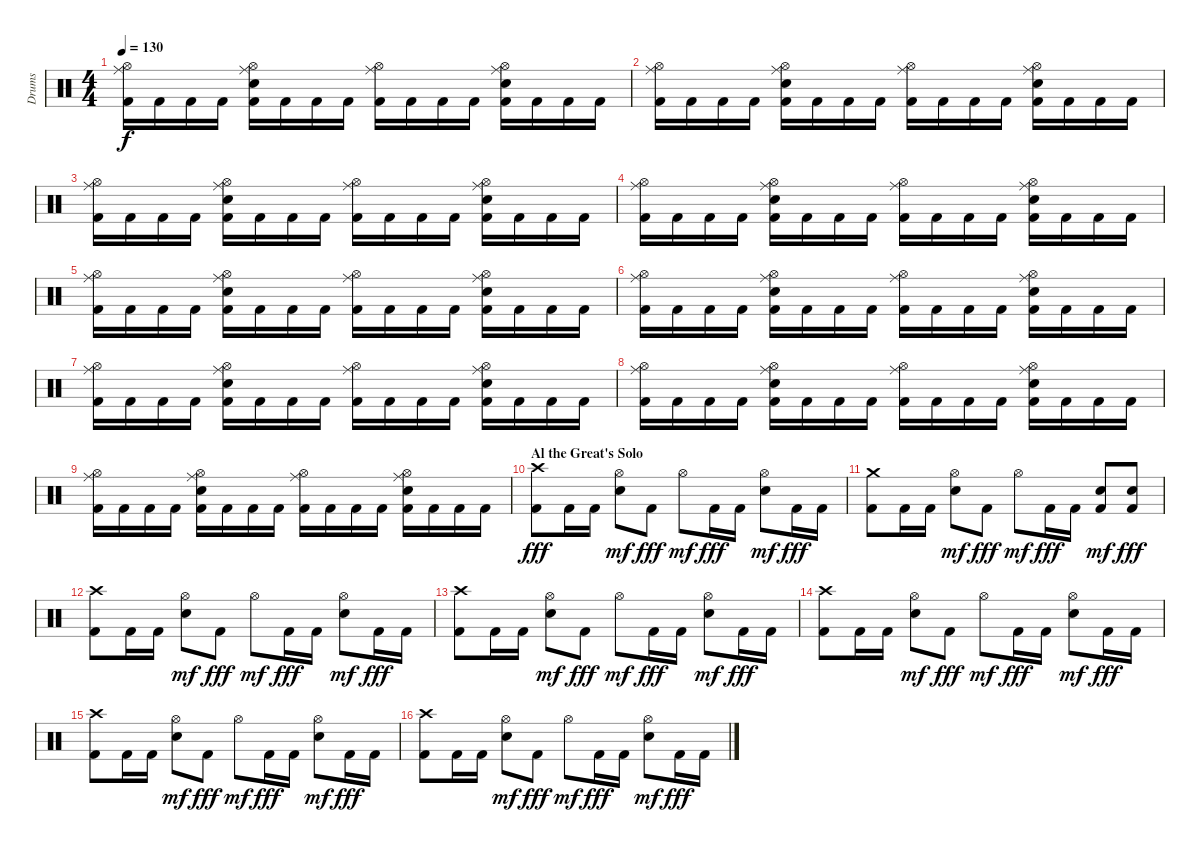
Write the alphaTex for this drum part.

\track ("Drums" "Drums") {instrument percussion}
\staff {score}
\articulation defaults
\ts (4 4)
\tempo 130
\clef neutral
\ks c
("Hi-Hat (open)" "Ride (middle)" "Kick (hit) 2").16{dy f} "Kick (hit) 2".16 "Kick (hit) 2".16 "Kick (hit) 2".16 ("Hi-Hat (open)" "Ride (middle)" "Snare (hit) 2" "Kick (hit) 2").16 "Kick (hit) 2".16 "Kick (hit) 2".16 "Kick (hit) 2".16 ("Hi-Hat (open)" "Ride (middle)" "Kick (hit) 2").16 "Kick (hit) 2".16 "Kick (hit) 2".16 "Kick (hit) 2".16 ("Hi-Hat (open)" "Ride (middle)" "Snare (hit) 2" "Kick (hit) 2").16 "Kick (hit) 2".16 "Kick (hit) 2".16 "Kick (hit) 2".16 |
("Hi-Hat (open)" "Ride (middle)" "Kick (hit) 2").16 "Kick (hit) 2".16 "Kick (hit) 2".16 "Kick (hit) 2".16 ("Hi-Hat (open)" "Ride (middle)" "Snare (hit) 2" "Kick (hit) 2").16 "Kick (hit) 2".16 "Kick (hit) 2".16 "Kick (hit) 2".16 ("Hi-Hat (open)" "Ride (middle)" "Kick (hit) 2").16 "Kick (hit) 2".16 "Kick (hit) 2".16 "Kick (hit) 2".16 ("Hi-Hat (open)" "Ride (middle)" "Snare (hit) 2" "Kick (hit) 2").16 "Kick (hit) 2".16 "Kick (hit) 2".16 "Kick (hit) 2".16 |
("Hi-Hat (open)" "Ride (middle)" "Kick (hit) 2").16 "Kick (hit) 2".16 "Kick (hit) 2".16 "Kick (hit) 2".16 ("Hi-Hat (open)" "Ride (middle)" "Snare (hit) 2" "Kick (hit) 2").16 "Kick (hit) 2".16 "Kick (hit) 2".16 "Kick (hit) 2".16 ("Hi-Hat (open)" "Ride (middle)" "Kick (hit) 2").16 "Kick (hit) 2".16 "Kick (hit) 2".16 "Kick (hit) 2".16 ("Hi-Hat (open)" "Ride (middle)" "Snare (hit) 2" "Kick (hit) 2").16 "Kick (hit) 2".16 "Kick (hit) 2".16 "Kick (hit) 2".16 |
("Hi-Hat (open)" "Ride (middle)" "Kick (hit) 2").16 "Kick (hit) 2".16 "Kick (hit) 2".16 "Kick (hit) 2".16 ("Hi-Hat (open)" "Ride (middle)" "Snare (hit) 2" "Kick (hit) 2").16 "Kick (hit) 2".16 "Kick (hit) 2".16 "Kick (hit) 2".16 ("Hi-Hat (open)" "Ride (middle)" "Kick (hit) 2").16 "Kick (hit) 2".16 "Kick (hit) 2".16 "Kick (hit) 2".16 ("Hi-Hat (open)" "Ride (middle)" "Snare (hit) 2" "Kick (hit) 2").16 "Kick (hit) 2".16 "Kick (hit) 2".16 "Kick (hit) 2".16 |
("Hi-Hat (open)" "Ride (middle)" "Kick (hit) 2").16 "Kick (hit) 2".16 "Kick (hit) 2".16 "Kick (hit) 2".16 ("Hi-Hat (open)" "Ride (middle)" "Snare (hit) 2" "Kick (hit) 2").16 "Kick (hit) 2".16 "Kick (hit) 2".16 "Kick (hit) 2".16 ("Hi-Hat (open)" "Ride (middle)" "Kick (hit) 2").16 "Kick (hit) 2".16 "Kick (hit) 2".16 "Kick (hit) 2".16 ("Hi-Hat (open)" "Ride (middle)" "Snare (hit) 2" "Kick (hit) 2").16 "Kick (hit) 2".16 "Kick (hit) 2".16 "Kick (hit) 2".16 |
("Hi-Hat (open)" "Ride (middle)" "Kick (hit) 2").16 "Kick (hit) 2".16 "Kick (hit) 2".16 "Kick (hit) 2".16 ("Hi-Hat (open)" "Ride (middle)" "Snare (hit) 2" "Kick (hit) 2").16 "Kick (hit) 2".16 "Kick (hit) 2".16 "Kick (hit) 2".16 ("Hi-Hat (open)" "Ride (middle)" "Kick (hit) 2").16 "Kick (hit) 2".16 "Kick (hit) 2".16 "Kick (hit) 2".16 ("Hi-Hat (open)" "Ride (middle)" "Snare (hit) 2" "Kick (hit) 2").16 "Kick (hit) 2".16 "Kick (hit) 2".16 "Kick (hit) 2".16 |
("Hi-Hat (open)" "Ride (middle)" "Kick (hit) 2").16 "Kick (hit) 2".16 "Kick (hit) 2".16 "Kick (hit) 2".16 ("Hi-Hat (open)" "Ride (middle)" "Snare (hit) 2" "Kick (hit) 2").16 "Kick (hit) 2".16 "Kick (hit) 2".16 "Kick (hit) 2".16 ("Hi-Hat (open)" "Ride (middle)" "Kick (hit) 2").16 "Kick (hit) 2".16 "Kick (hit) 2".16 "Kick (hit) 2".16 ("Hi-Hat (open)" "Ride (middle)" "Snare (hit) 2" "Kick (hit) 2").16 "Kick (hit) 2".16 "Kick (hit) 2".16 "Kick (hit) 2".16 |
("Hi-Hat (open)" "Ride (middle)" "Kick (hit) 2").16 "Kick (hit) 2".16 "Kick (hit) 2".16 "Kick (hit) 2".16 ("Hi-Hat (open)" "Ride (middle)" "Snare (hit) 2" "Kick (hit) 2").16 "Kick (hit) 2".16 "Kick (hit) 2".16 "Kick (hit) 2".16 ("Hi-Hat (open)" "Ride (middle)" "Kick (hit) 2").16 "Kick (hit) 2".16 "Kick (hit) 2".16 "Kick (hit) 2".16 ("Hi-Hat (open)" "Ride (middle)" "Snare (hit) 2" "Kick (hit) 2").16 "Kick (hit) 2".16 "Kick (hit) 2".16 "Kick (hit) 2".16 |
("Hi-Hat (open)" "Ride (middle)" "Kick (hit) 2").16 "Kick (hit) 2".16 "Kick (hit) 2".16 "Kick (hit) 2".16 ("Hi-Hat (open)" "Ride (middle)" "Snare (hit) 2" "Kick (hit) 2").16 "Kick (hit) 2".16 "Kick (hit) 2".16 "Kick (hit) 2".16 ("Hi-Hat (open)" "Ride (middle)" "Kick (hit) 2").16 "Kick (hit) 2".16 "Kick (hit) 2".16 "Kick (hit) 2".16 ("Hi-Hat (open)" "Ride (middle)" "Snare (hit) 2" "Kick (hit) 2").16 "Kick (hit) 2".16 "Kick (hit) 2".16 "Kick (hit) 2".16 |
\section ("" "Al the Great's Solo")
("Crash high (hit)" "Kick (hit) 2").8{dy fff} "Kick (hit) 2".16 "Kick (hit) 2".16 ("Electric Snare (hit)" "Hi-Hat (open)").8{dy mf} "Kick (hit) 2".8{dy fff} "Hi-Hat (open)".8{dy mf} "Kick (hit) 2".16{dy fff} "Kick (hit) 2".16 ("Electric Snare (hit)" "Hi-Hat (open)").8{dy mf} "Kick (hit) 2".16{dy fff} "Kick (hit) 2".16 |
("Crash medium (hit)" "Kick (hit) 2").8 "Kick (hit) 2".16 "Kick (hit) 2".16 ("Electric Snare (hit)" "Hi-Hat (open)").8{dy mf} "Kick (hit) 2".8{dy fff} "Hi-Hat (open)".8{dy mf} "Kick (hit) 2".16{dy fff} "Kick (hit) 2".16 ("Kick (hit) 2" "Snare (hit) 2").8{dy mf} ("Kick (hit) 2" "Snare (hit) 2").8{dy fff} |
("Crash high (hit)" "Kick (hit) 2").8 "Kick (hit) 2".16 "Kick (hit) 2".16 ("Electric Snare (hit)" "Hi-Hat (open)").8{dy mf} "Kick (hit) 2".8{dy fff} "Hi-Hat (open)".8{dy mf} "Kick (hit) 2".16{dy fff} "Kick (hit) 2".16 ("Electric Snare (hit)" "Hi-Hat (open)").8{dy mf} "Kick (hit) 2".16{dy fff} "Kick (hit) 2".16 |
("Crash high (hit)" "Kick (hit) 2").8 "Kick (hit) 2".16 "Kick (hit) 2".16 ("Electric Snare (hit)" "Hi-Hat (open)").8{dy mf} "Kick (hit) 2".8{dy fff} "Hi-Hat (open)".8{dy mf} "Kick (hit) 2".16{dy fff} "Kick (hit) 2".16 ("Electric Snare (hit)" "Hi-Hat (open)").8{dy mf} "Kick (hit) 2".16{dy fff} "Kick (hit) 2".16 |
("Crash high (hit)" "Kick (hit) 2").8 "Kick (hit) 2".16 "Kick (hit) 2".16 ("Electric Snare (hit)" "Hi-Hat (open)").8{dy mf} "Kick (hit) 2".8{dy fff} "Hi-Hat (open)".8{dy mf} "Kick (hit) 2".16{dy fff} "Kick (hit) 2".16 ("Electric Snare (hit)" "Hi-Hat (open)").8{dy mf} "Kick (hit) 2".16{dy fff} "Kick (hit) 2".16 |
("Crash high (hit)" "Kick (hit) 2").8 "Kick (hit) 2".16 "Kick (hit) 2".16 ("Electric Snare (hit)" "Hi-Hat (open)").8{dy mf} "Kick (hit) 2".8{dy fff} "Hi-Hat (open)".8{dy mf} "Kick (hit) 2".16{dy fff} "Kick (hit) 2".16 ("Electric Snare (hit)" "Hi-Hat (open)").8{dy mf} "Kick (hit) 2".16{dy fff} "Kick (hit) 2".16 |
("Crash high (hit)" "Kick (hit) 2").8 "Kick (hit) 2".16 "Kick (hit) 2".16 ("Electric Snare (hit)" "Hi-Hat (open)").8{dy mf} "Kick (hit) 2".8{dy fff} "Hi-Hat (open)".8{dy mf} "Kick (hit) 2".16{dy fff} "Kick (hit) 2".16 ("Electric Snare (hit)" "Hi-Hat (open)").8{dy mf} "Kick (hit) 2".16{dy fff} "Kick (hit) 2".16
